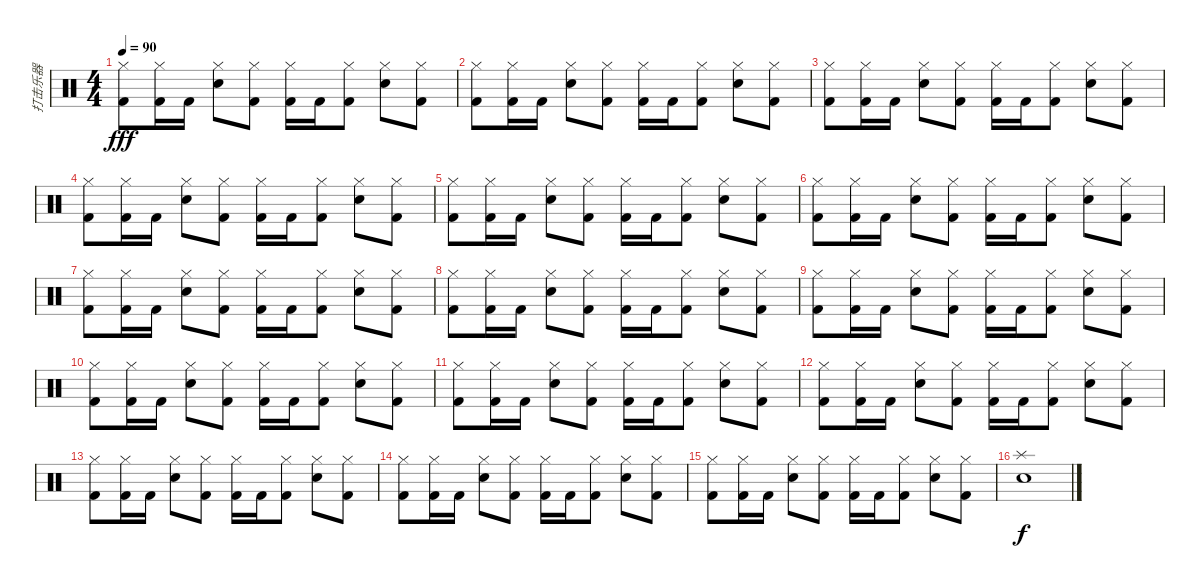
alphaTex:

\track ("打击乐器" "打击乐器") {instrument percussion}
\staff {score}
\articulation defaults
\ts (4 4)
\tempo 90
\clef neutral
\ks c
("Hi-Hat (closed)" "Kick (hit) 2").8{dy fff} ("Hi-Hat (closed)" "Kick (hit) 2").16 "Kick (hit) 2".16 ("Hi-Hat (closed)" "Electric Snare (hit)").8 ("Hi-Hat (closed)" "Kick (hit) 2").8 ("Hi-Hat (closed)" "Kick (hit) 2").16 "Kick (hit) 2".16 ("Hi-Hat (closed)" "Kick (hit) 2").8 ("Hi-Hat (closed)" "Electric Snare (hit)").8 ("Hi-Hat (closed)" "Kick (hit) 2").8 |
("Hi-Hat (closed)" "Kick (hit) 2").8 ("Hi-Hat (closed)" "Kick (hit) 2").16 "Kick (hit) 2".16 ("Hi-Hat (closed)" "Electric Snare (hit)").8 ("Hi-Hat (closed)" "Kick (hit) 2").8 ("Hi-Hat (closed)" "Kick (hit) 2").16 "Kick (hit) 2".16 ("Hi-Hat (closed)" "Kick (hit) 2").8 ("Hi-Hat (closed)" "Electric Snare (hit)").8 ("Hi-Hat (closed)" "Kick (hit) 2").8 |
("Hi-Hat (closed)" "Kick (hit) 2").8 ("Hi-Hat (closed)" "Kick (hit) 2").16 "Kick (hit) 2".16 ("Hi-Hat (closed)" "Electric Snare (hit)").8 ("Hi-Hat (closed)" "Kick (hit) 2").8 ("Hi-Hat (closed)" "Kick (hit) 2").16 "Kick (hit) 2".16 ("Hi-Hat (closed)" "Kick (hit) 2").8 ("Hi-Hat (closed)" "Electric Snare (hit)").8 ("Hi-Hat (closed)" "Kick (hit) 2").8 |
("Hi-Hat (closed)" "Kick (hit) 2").8 ("Hi-Hat (closed)" "Kick (hit) 2").16 "Kick (hit) 2".16 ("Hi-Hat (closed)" "Electric Snare (hit)").8 ("Hi-Hat (closed)" "Kick (hit) 2").8 ("Hi-Hat (closed)" "Kick (hit) 2").16 "Kick (hit) 2".16 ("Hi-Hat (closed)" "Kick (hit) 2").8 ("Hi-Hat (closed)" "Electric Snare (hit)").8 ("Hi-Hat (closed)" "Kick (hit) 2").8 |
("Hi-Hat (closed)" "Kick (hit) 2").8 ("Hi-Hat (closed)" "Kick (hit) 2").16 "Kick (hit) 2".16 ("Hi-Hat (closed)" "Electric Snare (hit)").8 ("Hi-Hat (closed)" "Kick (hit) 2").8 ("Hi-Hat (closed)" "Kick (hit) 2").16 "Kick (hit) 2".16 ("Hi-Hat (closed)" "Kick (hit) 2").8 ("Hi-Hat (closed)" "Electric Snare (hit)").8 ("Hi-Hat (closed)" "Kick (hit) 2").8 |
("Hi-Hat (closed)" "Kick (hit) 2").8 ("Hi-Hat (closed)" "Kick (hit) 2").16 "Kick (hit) 2".16 ("Hi-Hat (closed)" "Electric Snare (hit)").8 ("Hi-Hat (closed)" "Kick (hit) 2").8 ("Hi-Hat (closed)" "Kick (hit) 2").16 "Kick (hit) 2".16 ("Hi-Hat (closed)" "Kick (hit) 2").8 ("Hi-Hat (closed)" "Electric Snare (hit)").8 ("Hi-Hat (closed)" "Kick (hit) 2").8 |
("Hi-Hat (closed)" "Kick (hit) 2").8 ("Hi-Hat (closed)" "Kick (hit) 2").16 "Kick (hit) 2".16 ("Hi-Hat (closed)" "Electric Snare (hit)").8 ("Hi-Hat (closed)" "Kick (hit) 2").8 ("Hi-Hat (closed)" "Kick (hit) 2").16 "Kick (hit) 2".16 ("Hi-Hat (closed)" "Kick (hit) 2").8 ("Hi-Hat (closed)" "Electric Snare (hit)").8 ("Hi-Hat (closed)" "Kick (hit) 2").8 |
("Hi-Hat (closed)" "Kick (hit) 2").8 ("Hi-Hat (closed)" "Kick (hit) 2").16 "Kick (hit) 2".16 ("Hi-Hat (closed)" "Electric Snare (hit)").8 ("Hi-Hat (closed)" "Kick (hit) 2").8 ("Hi-Hat (closed)" "Kick (hit) 2").16 "Kick (hit) 2".16 ("Hi-Hat (closed)" "Kick (hit) 2").8 ("Hi-Hat (closed)" "Electric Snare (hit)").8 ("Hi-Hat (closed)" "Kick (hit) 2").8 |
("Hi-Hat (closed)" "Kick (hit) 2").8 ("Hi-Hat (closed)" "Kick (hit) 2").16 "Kick (hit) 2".16 ("Hi-Hat (closed)" "Electric Snare (hit)").8 ("Hi-Hat (closed)" "Kick (hit) 2").8 ("Hi-Hat (closed)" "Kick (hit) 2").16 "Kick (hit) 2".16 ("Hi-Hat (closed)" "Kick (hit) 2").8 ("Hi-Hat (closed)" "Electric Snare (hit)").8 ("Hi-Hat (closed)" "Kick (hit) 2").8 |
("Hi-Hat (closed)" "Kick (hit) 2").8 ("Hi-Hat (closed)" "Kick (hit) 2").16 "Kick (hit) 2".16 ("Hi-Hat (closed)" "Electric Snare (hit)").8 ("Hi-Hat (closed)" "Kick (hit) 2").8 ("Hi-Hat (closed)" "Kick (hit) 2").16 "Kick (hit) 2".16 ("Hi-Hat (closed)" "Kick (hit) 2").8 ("Hi-Hat (closed)" "Electric Snare (hit)").8 ("Hi-Hat (closed)" "Kick (hit) 2").8 |
("Hi-Hat (closed)" "Kick (hit) 2").8 ("Hi-Hat (closed)" "Kick (hit) 2").16 "Kick (hit) 2".16 ("Hi-Hat (closed)" "Electric Snare (hit)").8 ("Hi-Hat (closed)" "Kick (hit) 2").8 ("Hi-Hat (closed)" "Kick (hit) 2").16 "Kick (hit) 2".16 ("Hi-Hat (closed)" "Kick (hit) 2").8 ("Hi-Hat (closed)" "Electric Snare (hit)").8 ("Hi-Hat (closed)" "Kick (hit) 2").8 |
("Hi-Hat (closed)" "Kick (hit) 2").8 ("Hi-Hat (closed)" "Kick (hit) 2").16 "Kick (hit) 2".16 ("Hi-Hat (closed)" "Electric Snare (hit)").8 ("Hi-Hat (closed)" "Kick (hit) 2").8 ("Hi-Hat (closed)" "Kick (hit) 2").16 "Kick (hit) 2".16 ("Hi-Hat (closed)" "Kick (hit) 2").8 ("Hi-Hat (closed)" "Electric Snare (hit)").8 ("Hi-Hat (closed)" "Kick (hit) 2").8 |
("Hi-Hat (closed)" "Kick (hit) 2").8 ("Hi-Hat (closed)" "Kick (hit) 2").16 "Kick (hit) 2".16 ("Hi-Hat (closed)" "Electric Snare (hit)").8 ("Hi-Hat (closed)" "Kick (hit) 2").8 ("Hi-Hat (closed)" "Kick (hit) 2").16 "Kick (hit) 2".16 ("Hi-Hat (closed)" "Kick (hit) 2").8 ("Hi-Hat (closed)" "Electric Snare (hit)").8 ("Hi-Hat (closed)" "Kick (hit) 2").8 |
("Hi-Hat (closed)" "Kick (hit) 2").8 ("Hi-Hat (closed)" "Kick (hit) 2").16 "Kick (hit) 2".16 ("Hi-Hat (closed)" "Electric Snare (hit)").8 ("Hi-Hat (closed)" "Kick (hit) 2").8 ("Hi-Hat (closed)" "Kick (hit) 2").16 "Kick (hit) 2".16 ("Hi-Hat (closed)" "Kick (hit) 2").8 ("Hi-Hat (closed)" "Electric Snare (hit)").8 ("Hi-Hat (closed)" "Kick (hit) 2").8 |
("Hi-Hat (closed)" "Kick (hit) 2").8 ("Hi-Hat (closed)" "Kick (hit) 2").16 "Kick (hit) 2".16 ("Hi-Hat (closed)" "Electric Snare (hit)").8 ("Hi-Hat (closed)" "Kick (hit) 2").8 ("Hi-Hat (closed)" "Kick (hit) 2").16 "Kick (hit) 2".16 ("Hi-Hat (closed)" "Kick (hit) 2").8 ("Hi-Hat (closed)" "Electric Snare (hit)").8 ("Hi-Hat (closed)" "Kick (hit) 2").8 |
("Splash (hit)" "Snare (hit) 2").1{dy f}
